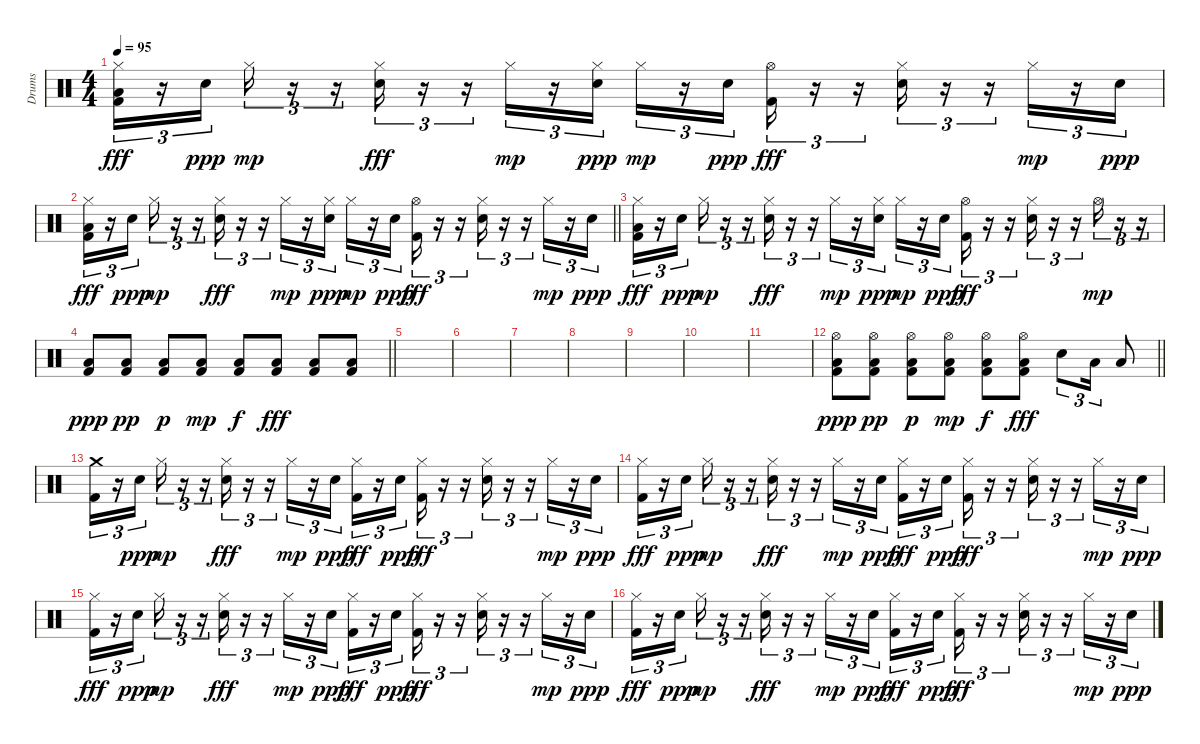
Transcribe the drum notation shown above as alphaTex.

\track ("Drums" "Drums") {instrument percussion}
\staff {score}
\articulation defaults
\ts (4 4)
\tempo 95
\clef neutral
\ks c
("Hi-Hat (closed)" "Low Floor Tom (hit)" "Kick (hit) 2").16{tu (3 2) dy fff} r.16{tu (3 2)} "Electric Snare (hit)".16{tu (3 2) dy ppp} "Hi-Hat (closed)".16{tu (3 2) dy mp} r.16{tu (3 2)} r.16{tu (3 2)} ("Hi-Hat (closed)" "Electric Snare (hit)").16{tu (3 2) dy fff} r.16{tu (3 2)} r.16{tu (3 2)} "Hi-Hat (closed)".16{tu (3 2) dy mp} r.16{tu (3 2)} ("Hi-Hat (closed)" "Electric Snare (hit)").16{tu (3 2) dy ppp} "Hi-Hat (closed)".16{tu (3 2) dy mp} r.16{tu (3 2)} "Electric Snare (hit)".16{tu (3 2) dy ppp} ("Hi-Hat (open)" "Kick (hit) 2").16{tu (3 2) dy fff} r.16{tu (3 2)} r.16{tu (3 2)} ("Hi-Hat (closed)" "Electric Snare (hit)").16{tu (3 2)} r.16{tu (3 2)} r.16{tu (3 2)} "Hi-Hat (closed)".16{tu (3 2) dy mp} r.16{tu (3 2)} "Electric Snare (hit)".16{tu (3 2) dy ppp} |
\barLineRight lightlight
("Hi-Hat (closed)" "Low Floor Tom (hit)" "Kick (hit) 2").16{tu (3 2) dy fff} r.16{tu (3 2)} "Electric Snare (hit)".16{tu (3 2) dy ppp} "Hi-Hat (closed)".16{tu (3 2) dy mp} r.16{tu (3 2)} r.16{tu (3 2)} ("Hi-Hat (closed)" "Electric Snare (hit)").16{tu (3 2) dy fff} r.16{tu (3 2)} r.16{tu (3 2)} "Hi-Hat (closed)".16{tu (3 2) dy mp} r.16{tu (3 2)} ("Hi-Hat (closed)" "Electric Snare (hit)").16{tu (3 2) dy ppp} "Hi-Hat (closed)".16{tu (3 2) dy mp} r.16{tu (3 2)} "Electric Snare (hit)".16{tu (3 2) dy ppp} ("Hi-Hat (open)" "Kick (hit) 2").16{tu (3 2) dy fff} r.16{tu (3 2)} r.16{tu (3 2)} ("Hi-Hat (closed)" "Electric Snare (hit)").16{tu (3 2)} r.16{tu (3 2)} r.16{tu (3 2)} "Hi-Hat (closed)".16{tu (3 2) dy mp} r.16{tu (3 2)} "Electric Snare (hit)".16{tu (3 2) dy ppp} |
("Hi-Hat (closed)" "Low Floor Tom (hit)" "Kick (hit) 2").16{tu (3 2) dy fff} r.16{tu (3 2)} "Electric Snare (hit)".16{tu (3 2) dy ppp} "Hi-Hat (closed)".16{tu (3 2) dy mp} r.16{tu (3 2)} r.16{tu (3 2)} ("Hi-Hat (closed)" "Electric Snare (hit)").16{tu (3 2) dy fff} r.16{tu (3 2)} r.16{tu (3 2)} "Hi-Hat (closed)".16{tu (3 2) dy mp} r.16{tu (3 2)} ("Hi-Hat (closed)" "Electric Snare (hit)").16{tu (3 2) dy ppp} "Hi-Hat (closed)".16{tu (3 2) dy mp} r.16{tu (3 2)} "Electric Snare (hit)".16{tu (3 2) dy ppp} ("Hi-Hat (open)" "Kick (hit) 2").16{tu (3 2) dy fff} r.16{tu (3 2)} r.16{tu (3 2)} ("Hi-Hat (closed)" "Electric Snare (hit)").16{tu (3 2)} r.16{tu (3 2)} r.16{tu (3 2)} "Hi-Hat (open)".16{tu (3 2) dy mp} r.16{tu (3 2)} r.16{tu (3 2)} |
\barLineRight lightlight
("Low Floor Tom (hit)" "Kick (hit) 2").8{dy ppp} ("Low Floor Tom (hit)" "Kick (hit) 2").8{dy pp} ("Low Floor Tom (hit)" "Kick (hit) 2").8{dy p} ("Low Floor Tom (hit)" "Kick (hit) 2").8{dy mp} ("Low Floor Tom (hit)" "Kick (hit) 2").8{dy f} ("Low Floor Tom (hit)" "Kick (hit) 2").8{dy fff} ("Low Floor Tom (hit)" "Kick (hit) 2").8 ("Low Floor Tom (hit)" "Kick (hit) 2").8 |
|
|
|
|
|
|
|
\barLineRight lightlight
("Hi-Hat (open)" "Low Floor Tom (hit)" "Kick (hit) 2").8{dy ppp} ("Hi-Hat (open)" "Low Floor Tom (hit)" "Kick (hit) 2").8{dy pp} ("Hi-Hat (open)" "Low Floor Tom (hit)" "Kick (hit) 2").8{dy p} ("Hi-Hat (open)" "Low Floor Tom (hit)" "Kick (hit) 2").8{dy mp} ("Hi-Hat (open)" "Low Floor Tom (hit)" "Kick (hit) 2").8{dy f} ("Hi-Hat (open)" "Low Floor Tom (hit)" "Kick (hit) 2").8{dy fff} "Electric Snare (hit)".8{tu (3 2)} "Low Tom (hit)".16{tu (3 2)} "Low Floor Tom (hit)".8 |
("Crash medium (hit)" "Kick (hit) 2").16{tu (3 2)} r.16{tu (3 2)} "Electric Snare (hit)".16{tu (3 2) dy ppp} "Hi-Hat (closed)".16{tu (3 2) dy mp} r.16{tu (3 2)} r.16{tu (3 2)} ("Hi-Hat (closed)" "Electric Snare (hit)").16{tu (3 2) dy fff} r.16{tu (3 2)} r.16{tu (3 2)} "Hi-Hat (closed)".16{tu (3 2) dy mp} r.16{tu (3 2)} "Electric Snare (hit)".16{tu (3 2) dy ppp} ("Hi-Hat (closed)" "Kick (hit) 2").16{tu (3 2) dy fff} r.16{tu (3 2)} "Electric Snare (hit)".16{tu (3 2) dy ppp} ("Hi-Hat (closed)" "Kick (hit) 2").16{tu (3 2) dy fff} r.16{tu (3 2)} r.16{tu (3 2)} ("Hi-Hat (closed)" "Electric Snare (hit)").16{tu (3 2)} r.16{tu (3 2)} r.16{tu (3 2)} "Hi-Hat (closed)".16{tu (3 2) dy mp} r.16{tu (3 2)} "Electric Snare (hit)".16{tu (3 2) dy ppp} |
("Hi-Hat (closed)" "Kick (hit) 2").16{tu (3 2) dy fff} r.16{tu (3 2)} "Electric Snare (hit)".16{tu (3 2) dy ppp} "Hi-Hat (closed)".16{tu (3 2) dy mp} r.16{tu (3 2)} r.16{tu (3 2)} ("Hi-Hat (closed)" "Electric Snare (hit)").16{tu (3 2) dy fff} r.16{tu (3 2)} r.16{tu (3 2)} "Hi-Hat (closed)".16{tu (3 2) dy mp} r.16{tu (3 2)} "Electric Snare (hit)".16{tu (3 2) dy ppp} ("Hi-Hat (closed)" "Kick (hit) 2").16{tu (3 2) dy fff} r.16{tu (3 2)} "Electric Snare (hit)".16{tu (3 2) dy ppp} ("Hi-Hat (closed)" "Kick (hit) 2").16{tu (3 2) dy fff} r.16{tu (3 2)} r.16{tu (3 2)} ("Hi-Hat (closed)" "Electric Snare (hit)").16{tu (3 2)} r.16{tu (3 2)} r.16{tu (3 2)} "Hi-Hat (closed)".16{tu (3 2) dy mp} r.16{tu (3 2)} "Electric Snare (hit)".16{tu (3 2) dy ppp} |
("Hi-Hat (closed)" "Kick (hit) 2").16{tu (3 2) dy fff} r.16{tu (3 2)} "Electric Snare (hit)".16{tu (3 2) dy ppp} "Hi-Hat (closed)".16{tu (3 2) dy mp} r.16{tu (3 2)} r.16{tu (3 2)} ("Hi-Hat (closed)" "Electric Snare (hit)").16{tu (3 2) dy fff} r.16{tu (3 2)} r.16{tu (3 2)} "Hi-Hat (closed)".16{tu (3 2) dy mp} r.16{tu (3 2)} "Electric Snare (hit)".16{tu (3 2) dy ppp} ("Hi-Hat (closed)" "Kick (hit) 2").16{tu (3 2) dy fff} r.16{tu (3 2)} "Electric Snare (hit)".16{tu (3 2) dy ppp} ("Hi-Hat (closed)" "Kick (hit) 2").16{tu (3 2) dy fff} r.16{tu (3 2)} r.16{tu (3 2)} ("Hi-Hat (closed)" "Electric Snare (hit)").16{tu (3 2)} r.16{tu (3 2)} r.16{tu (3 2)} "Hi-Hat (closed)".16{tu (3 2) dy mp} r.16{tu (3 2)} "Electric Snare (hit)".16{tu (3 2) dy ppp} |
("Hi-Hat (closed)" "Kick (hit) 2").16{tu (3 2) dy fff} r.16{tu (3 2)} "Electric Snare (hit)".16{tu (3 2) dy ppp} "Hi-Hat (closed)".16{tu (3 2) dy mp} r.16{tu (3 2)} r.16{tu (3 2)} ("Hi-Hat (closed)" "Electric Snare (hit)").16{tu (3 2) dy fff} r.16{tu (3 2)} r.16{tu (3 2)} "Hi-Hat (closed)".16{tu (3 2) dy mp} r.16{tu (3 2)} "Electric Snare (hit)".16{tu (3 2) dy ppp} ("Hi-Hat (closed)" "Kick (hit) 2").16{tu (3 2) dy fff} r.16{tu (3 2)} "Electric Snare (hit)".16{tu (3 2) dy ppp} ("Hi-Hat (closed)" "Kick (hit) 2").16{tu (3 2) dy fff} r.16{tu (3 2)} r.16{tu (3 2)} ("Hi-Hat (closed)" "Electric Snare (hit)").16{tu (3 2)} r.16{tu (3 2)} r.16{tu (3 2)} "Hi-Hat (closed)".16{tu (3 2) dy mp} r.16{tu (3 2)} "Electric Snare (hit)".16{tu (3 2) dy ppp}
